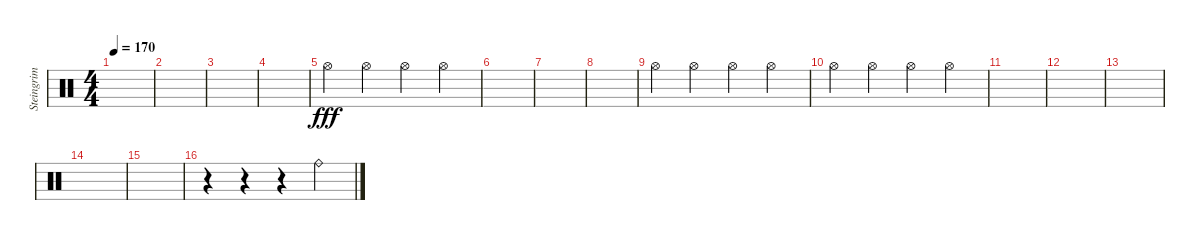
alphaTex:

\track ("Steingrim" "Steingrim") {instrument percussion}
\staff {score}
\articulation defaults
\ts (4 4)
\tempo 170
\clef neutral
\ks c
|
|
|
|
"Hi-Hat (open)".4{dy fff} "Hi-Hat (open)".4 "Hi-Hat (open)".4 "Hi-Hat (open)".4 |
|
|
|
"Hi-Hat (open)".4 "Hi-Hat (open)".4 "Hi-Hat (open)".4 "Hi-Hat (open)".4 |
"Hi-Hat (open)".4 "Hi-Hat (open)".4 "Hi-Hat (open)".4 "Hi-Hat (open)".4 |
|
|
|
|
|
r.4 r.4 r.4 "Ride (bell)".4
